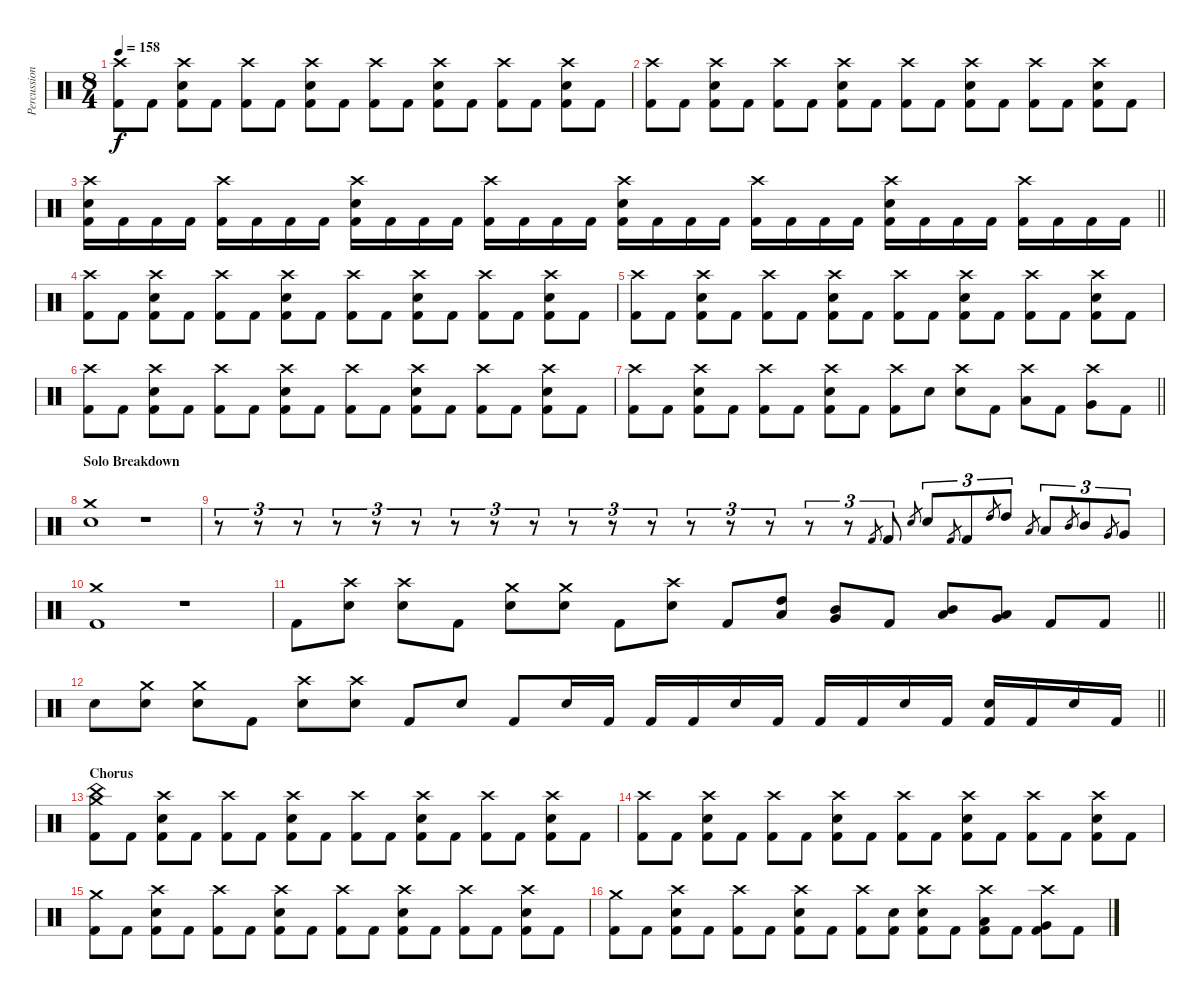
\track ("Percussion" "Percussion") {instrument percussion}
\staff {score}
\articulation defaults
\ts (8 4)
\tempo 158
\clef neutral
\ks c
("Crash high (hit)" "Kick (hit) 2").8{dy f} "Kick (hit) 2".8 ("Crash high (hit)" "Electric Snare (hit)" "Kick (hit) 2").8 "Kick (hit) 2".8 ("Crash high (hit)" "Kick (hit) 2").8 "Kick (hit) 2".8 ("Crash high (hit)" "Electric Snare (hit)" "Kick (hit) 2").8 "Kick (hit) 2".8 ("Crash high (hit)" "Kick (hit) 2").8 "Kick (hit) 2".8 ("Crash high (hit)" "Electric Snare (hit)" "Kick (hit) 2").8 "Kick (hit) 2".8 ("Crash high (hit)" "Kick (hit) 2").8 "Kick (hit) 2".8 ("Crash high (hit)" "Electric Snare (hit)" "Kick (hit) 2").8 "Kick (hit) 2".8 |
("Crash high (hit)" "Kick (hit) 2").8 "Kick (hit) 2".8 ("Crash high (hit)" "Electric Snare (hit)" "Kick (hit) 2").8 "Kick (hit) 2".8 ("Crash high (hit)" "Kick (hit) 2").8 "Kick (hit) 2".8 ("Crash high (hit)" "Electric Snare (hit)" "Kick (hit) 2").8 "Kick (hit) 2".8 ("Crash high (hit)" "Kick (hit) 2").8 "Kick (hit) 2".8 ("Crash high (hit)" "Electric Snare (hit)" "Kick (hit) 2").8 "Kick (hit) 2".8 ("Crash high (hit)" "Kick (hit) 2").8 "Kick (hit) 2".8 ("Crash high (hit)" "Electric Snare (hit)" "Kick (hit) 2").8 "Kick (hit) 2".8 |
\barLineRight lightlight
("Crash high (hit)" "Electric Snare (hit)" "Kick (hit) 2").16 "Kick (hit) 2".16 "Kick (hit) 2".16 "Kick (hit) 2".16 ("Crash high (hit)" "Kick (hit) 2").16 "Kick (hit) 2".16 "Kick (hit) 2".16 "Kick (hit) 2".16 ("Crash high (hit)" "Electric Snare (hit)" "Kick (hit) 2").16 "Kick (hit) 2".16 "Kick (hit) 2".16 "Kick (hit) 2".16 ("Crash high (hit)" "Kick (hit) 2").16 "Kick (hit) 2".16 "Kick (hit) 2".16 "Kick (hit) 2".16 ("Crash high (hit)" "Electric Snare (hit)" "Kick (hit) 2").16 "Kick (hit) 2".16 "Kick (hit) 2".16 "Kick (hit) 2".16 ("Crash high (hit)" "Kick (hit) 2").16 "Kick (hit) 2".16 "Kick (hit) 2".16 "Kick (hit) 2".16 ("Crash high (hit)" "Electric Snare (hit)" "Kick (hit) 2").16 "Kick (hit) 2".16 "Kick (hit) 2".16 "Kick (hit) 2".16 ("Crash high (hit)" "Kick (hit) 2").16 "Kick (hit) 2".16 "Kick (hit) 2".16 "Kick (hit) 2".16 |
("Crash high (hit)" "Kick (hit) 2").8 "Kick (hit) 2".8 ("Crash high (hit)" "Electric Snare (hit)" "Kick (hit) 2").8 "Kick (hit) 2".8 ("Crash high (hit)" "Kick (hit) 2").8 "Kick (hit) 2".8 ("Crash high (hit)" "Electric Snare (hit)" "Kick (hit) 2").8 "Kick (hit) 2".8 ("Crash high (hit)" "Kick (hit) 2").8 "Kick (hit) 2".8 ("Crash high (hit)" "Electric Snare (hit)" "Kick (hit) 2").8 "Kick (hit) 2".8 ("Crash high (hit)" "Kick (hit) 2").8 "Kick (hit) 2".8 ("Crash high (hit)" "Electric Snare (hit)" "Kick (hit) 2").8 "Kick (hit) 2".8 |
("Crash high (hit)" "Kick (hit) 2").8 "Kick (hit) 2".8 ("Crash high (hit)" "Electric Snare (hit)" "Kick (hit) 2").8 "Kick (hit) 2".8 ("Crash high (hit)" "Kick (hit) 2").8 "Kick (hit) 2".8 ("Crash high (hit)" "Electric Snare (hit)" "Kick (hit) 2").8 "Kick (hit) 2".8 ("Crash high (hit)" "Kick (hit) 2").8 "Kick (hit) 2".8 ("Crash high (hit)" "Electric Snare (hit)" "Kick (hit) 2").8 "Kick (hit) 2".8 ("Crash high (hit)" "Kick (hit) 2").8 "Kick (hit) 2".8 ("Crash high (hit)" "Electric Snare (hit)" "Kick (hit) 2").8 "Kick (hit) 2".8 |
("Crash high (hit)" "Kick (hit) 2").8 "Kick (hit) 2".8 ("Crash high (hit)" "Electric Snare (hit)" "Kick (hit) 2").8 "Kick (hit) 2".8 ("Crash high (hit)" "Kick (hit) 2").8 "Kick (hit) 2".8 ("Crash high (hit)" "Electric Snare (hit)" "Kick (hit) 2").8 "Kick (hit) 2".8 ("Crash high (hit)" "Kick (hit) 2").8 "Kick (hit) 2".8 ("Crash high (hit)" "Electric Snare (hit)" "Kick (hit) 2").8 "Kick (hit) 2".8 ("Crash high (hit)" "Kick (hit) 2").8 "Kick (hit) 2".8 ("Crash high (hit)" "Electric Snare (hit)" "Kick (hit) 2").8 "Kick (hit) 2".8 |
\barLineRight lightlight
("Crash high (hit)" "Kick (hit) 2").8 "Kick (hit) 2".8 ("Crash high (hit)" "Electric Snare (hit)" "Kick (hit) 2").8 "Kick (hit) 2".8 ("Crash high (hit)" "Kick (hit) 2").8 "Kick (hit) 2".8 ("Crash high (hit)" "Electric Snare (hit)" "Kick (hit) 2").8 "Kick (hit) 2".8 ("Crash high (hit)" "Kick (hit) 2").8 "Electric Snare (hit)".8 ("Crash high (hit)" "Electric Snare (hit)").8 "Kick (hit) 2".8 ("Crash high (hit)" "Low Tom (hit)").8 "Kick (hit) 2".8 ("Crash high (hit)" "Very Low Tom (hit)").8 "Kick (hit) 2".8 |
\section ("" "Solo Breakdown")
("Crash medium (hit)" "Electric Snare (hit)").1 r.1 |
r.8{tu (3 2)} r.8{tu (3 2)} r.8{tu (3 2)} r.8{tu (3 2)} r.8{tu (3 2)} r.8{tu (3 2)} r.8{tu (3 2)} r.8{tu (3 2)} r.8{tu (3 2)} r.8{tu (3 2)} r.8{tu (3 2)} r.8{tu (3 2)} r.8{tu (3 2)} r.8{tu (3 2)} r.8{tu (3 2)} r.8{tu (3 2)} r.8{tu (3 2)} "Kick (hit) 2".8{gr} "Kick (hit) 2".8{tu (3 2)} "Electric Snare (hit)".8{gr} "Electric Snare (hit)".8{tu (3 2)} "Kick (hit) 2".8{gr} "Kick (hit) 2".8{tu (3 2)} "High Tom (hit)".8{gr} "High Tom (hit)".8{tu (3 2)} "Low Tom (hit)".8{gr} "Low Tom (hit)".8{tu (3 2)} "Mid Tom (hit)".8{gr} "Mid Tom (hit)".8{tu (3 2)} "Very Low Tom (hit)".8{gr} "Very Low Tom (hit)".8{tu (3 2)} |
("Crash medium (hit)" "Kick (hit) 2").1 r.1 |
\barLineRight lightlight "Kick (hit) 2".8
("Crash high (hit)" "Electric Snare (hit)").8 ("Crash high (hit)" "Electric Snare (hit)").8 "Kick (hit) 2".8 ("Crash medium (hit)" "Electric Snare (hit)").8 ("Crash medium (hit)" "Electric Snare (hit)").8 "Kick (hit) 2".8 ("Crash high (hit)" "Electric Snare (hit)").8 "Kick (hit) 2".8 ("High Tom (hit)" "Low Tom (hit)").8 ("Very Low Tom (hit)" "Mid Tom (hit)").8 "Kick (hit) 2".8 ("Mid Tom (hit)" "Low Tom (hit)").8 ("Low Tom (hit)" "Very Low Tom (hit)").8 "Kick (hit) 2".8 "Kick (hit) 2".8 |
\barLineRight lightlight "Electric Snare (hit)".8
("Crash medium (hit)" "Electric Snare (hit)").8 ("Crash medium (hit)" "Electric Snare (hit)").8 "Kick (hit) 2".8 ("Crash high (hit)" "Electric Snare (hit)").8 ("Crash high (hit)" "Electric Snare (hit)").8 "Kick (hit) 2".8 "Electric Snare (hit)".8 "Kick (hit) 2".8 "Electric Snare (hit)".16 "Kick (hit) 2".16 "Kick (hit) 2".16 "Kick (hit) 2".16 "Electric Snare (hit)".16 "Kick (hit) 2".16 "Kick (hit) 2".16 "Kick (hit) 2".16 "Electric Snare (hit)".16 "Kick (hit) 2".16 ("Electric Snare (hit)" "Kick (hit) 2").16 "Kick (hit) 2".16 "Electric Snare (hit)".16 "Kick (hit) 2".16 |
\section ("" "Chorus")
("Crash medium (hit)" "China (hit)" "Kick (hit) 2").8 "Kick (hit) 2".8 ("Crash high (hit)" "Electric Snare (hit)" "Kick (hit) 2").8 "Kick (hit) 2".8 ("Crash high (hit)" "Kick (hit) 2").8 "Kick (hit) 2".8 ("Crash high (hit)" "Electric Snare (hit)" "Kick (hit) 2").8 "Kick (hit) 2".8 ("Crash high (hit)" "Kick (hit) 2").8 "Kick (hit) 2".8 ("Crash high (hit)" "Electric Snare (hit)" "Kick (hit) 2").8 "Kick (hit) 2".8 ("Crash high (hit)" "Kick (hit) 2").8 "Kick (hit) 2".8 ("Crash high (hit)" "Electric Snare (hit)" "Kick (hit) 2").8 "Kick (hit) 2".8 |
("Crash high (hit)" "Kick (hit) 2").8 "Kick (hit) 2".8 ("Crash high (hit)" "Electric Snare (hit)" "Kick (hit) 2").8 "Kick (hit) 2".8 ("Crash high (hit)" "Kick (hit) 2").8 "Kick (hit) 2".8 ("Crash high (hit)" "Electric Snare (hit)" "Kick (hit) 2").8 "Kick (hit) 2".8 ("Crash high (hit)" "Kick (hit) 2").8 "Kick (hit) 2".8 ("Crash high (hit)" "Electric Snare (hit)" "Kick (hit) 2").8 "Kick (hit) 2".8 ("Crash high (hit)" "Kick (hit) 2").8 "Kick (hit) 2".8 ("Crash high (hit)" "Electric Snare (hit)" "Kick (hit) 2").8 "Kick (hit) 2".8 |
("Crash medium (hit)" "Kick (hit) 2").8 "Kick (hit) 2".8 ("Crash high (hit)" "Electric Snare (hit)" "Kick (hit) 2").8 "Kick (hit) 2".8 ("Crash high (hit)" "Kick (hit) 2").8 "Kick (hit) 2".8 ("Crash high (hit)" "Electric Snare (hit)" "Kick (hit) 2").8 "Kick (hit) 2".8 ("Crash high (hit)" "Kick (hit) 2").8 "Kick (hit) 2".8 ("Crash high (hit)" "Electric Snare (hit)" "Kick (hit) 2").8 "Kick (hit) 2".8 ("Crash high (hit)" "Kick (hit) 2").8 "Kick (hit) 2".8 ("Crash high (hit)" "Electric Snare (hit)" "Kick (hit) 2").8 "Kick (hit) 2".8 |
("Crash medium (hit)" "Kick (hit) 2").8 "Kick (hit) 2".8 ("Crash high (hit)" "Electric Snare (hit)" "Kick (hit) 2").8 "Kick (hit) 2".8 ("Crash high (hit)" "Kick (hit) 2").8 "Kick (hit) 2".8 ("Crash high (hit)" "Electric Snare (hit)" "Kick (hit) 2").8 "Kick (hit) 2".8 ("Crash high (hit)" "Kick (hit) 2").8 ("Electric Snare (hit)" "Kick (hit) 2").8 ("Crash high (hit)" "Electric Snare (hit)" "Kick (hit) 2").8 "Kick (hit) 2".8 ("Crash high (hit)" "Low Tom (hit)" "Kick (hit) 2").8 "Kick (hit) 2".8 ("Crash high (hit)" "Very Low Tom (hit)" "Kick (hit) 2").8 "Kick (hit) 2".8
